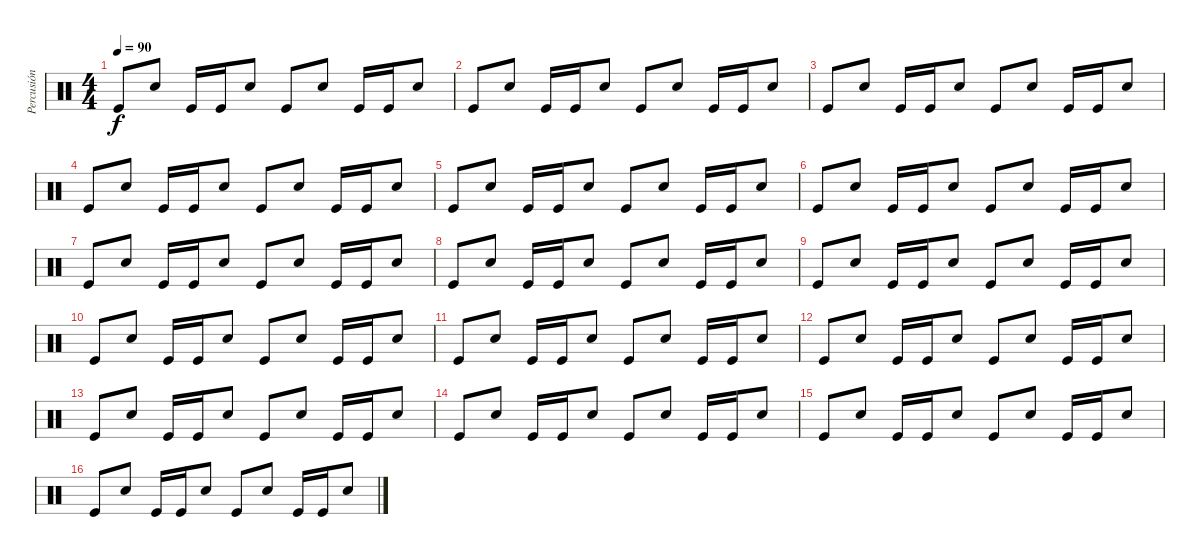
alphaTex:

\track ("Percusión" "Percusión") {instrument percussion}
\staff {score}
\articulation defaults
\ts (4 4)
\tempo 90
\clef neutral
\ks c "Kick (hit)".8{dy f} "Electric Snare (hit)".8 "Kick (hit)".16 "Kick (hit)".16 "Electric Snare (hit)".8 "Kick (hit)".8 "Electric Snare (hit)".8 "Kick (hit)".16 "Kick (hit)".16 "Electric Snare (hit)".8
|
"Kick (hit)".8 "Electric Snare (hit)".8 "Kick (hit)".16 "Kick (hit)".16 "Electric Snare (hit)".8 "Kick (hit)".8 "Electric Snare (hit)".8 "Kick (hit)".16 "Kick (hit)".16 "Electric Snare (hit)".8 |
"Kick (hit)".8 "Electric Snare (hit)".8 "Kick (hit)".16 "Kick (hit)".16 "Electric Snare (hit)".8 "Kick (hit)".8 "Electric Snare (hit)".8 "Kick (hit)".16 "Kick (hit)".16 "Electric Snare (hit)".8 |
"Kick (hit)".8 "Electric Snare (hit)".8 "Kick (hit)".16 "Kick (hit)".16 "Electric Snare (hit)".8 "Kick (hit)".8 "Electric Snare (hit)".8 "Kick (hit)".16 "Kick (hit)".16 "Electric Snare (hit)".8 |
"Kick (hit)".8 "Electric Snare (hit)".8 "Kick (hit)".16 "Kick (hit)".16 "Electric Snare (hit)".8 "Kick (hit)".8 "Electric Snare (hit)".8 "Kick (hit)".16 "Kick (hit)".16 "Electric Snare (hit)".8 |
"Kick (hit)".8 "Electric Snare (hit)".8 "Kick (hit)".16 "Kick (hit)".16 "Electric Snare (hit)".8 "Kick (hit)".8 "Electric Snare (hit)".8 "Kick (hit)".16 "Kick (hit)".16 "Electric Snare (hit)".8 |
"Kick (hit)".8 "Electric Snare (hit)".8 "Kick (hit)".16 "Kick (hit)".16 "Electric Snare (hit)".8 "Kick (hit)".8 "Electric Snare (hit)".8 "Kick (hit)".16 "Kick (hit)".16 "Electric Snare (hit)".8 |
"Kick (hit)".8 "Electric Snare (hit)".8 "Kick (hit)".16 "Kick (hit)".16 "Electric Snare (hit)".8 "Kick (hit)".8 "Electric Snare (hit)".8 "Kick (hit)".16 "Kick (hit)".16 "Electric Snare (hit)".8 |
"Kick (hit)".8 "Electric Snare (hit)".8 "Kick (hit)".16 "Kick (hit)".16 "Electric Snare (hit)".8 "Kick (hit)".8 "Electric Snare (hit)".8 "Kick (hit)".16 "Kick (hit)".16 "Electric Snare (hit)".8 |
"Kick (hit)".8 "Electric Snare (hit)".8 "Kick (hit)".16 "Kick (hit)".16 "Electric Snare (hit)".8 "Kick (hit)".8 "Electric Snare (hit)".8 "Kick (hit)".16 "Kick (hit)".16 "Electric Snare (hit)".8 |
"Kick (hit)".8 "Electric Snare (hit)".8 "Kick (hit)".16 "Kick (hit)".16 "Electric Snare (hit)".8 "Kick (hit)".8 "Electric Snare (hit)".8 "Kick (hit)".16 "Kick (hit)".16 "Electric Snare (hit)".8 |
"Kick (hit)".8 "Electric Snare (hit)".8 "Kick (hit)".16 "Kick (hit)".16 "Electric Snare (hit)".8 "Kick (hit)".8 "Electric Snare (hit)".8 "Kick (hit)".16 "Kick (hit)".16 "Electric Snare (hit)".8 |
"Kick (hit)".8 "Electric Snare (hit)".8 "Kick (hit)".16 "Kick (hit)".16 "Electric Snare (hit)".8 "Kick (hit)".8 "Electric Snare (hit)".8 "Kick (hit)".16 "Kick (hit)".16 "Electric Snare (hit)".8 |
"Kick (hit)".8 "Electric Snare (hit)".8 "Kick (hit)".16 "Kick (hit)".16 "Electric Snare (hit)".8 "Kick (hit)".8 "Electric Snare (hit)".8 "Kick (hit)".16 "Kick (hit)".16 "Electric Snare (hit)".8 |
"Kick (hit)".8 "Electric Snare (hit)".8 "Kick (hit)".16 "Kick (hit)".16 "Electric Snare (hit)".8 "Kick (hit)".8 "Electric Snare (hit)".8 "Kick (hit)".16 "Kick (hit)".16 "Electric Snare (hit)".8 |
"Kick (hit)".8 "Electric Snare (hit)".8 "Kick (hit)".16 "Kick (hit)".16 "Electric Snare (hit)".8 "Kick (hit)".8 "Electric Snare (hit)".8 "Kick (hit)".16 "Kick (hit)".16 "Electric Snare (hit)".8
